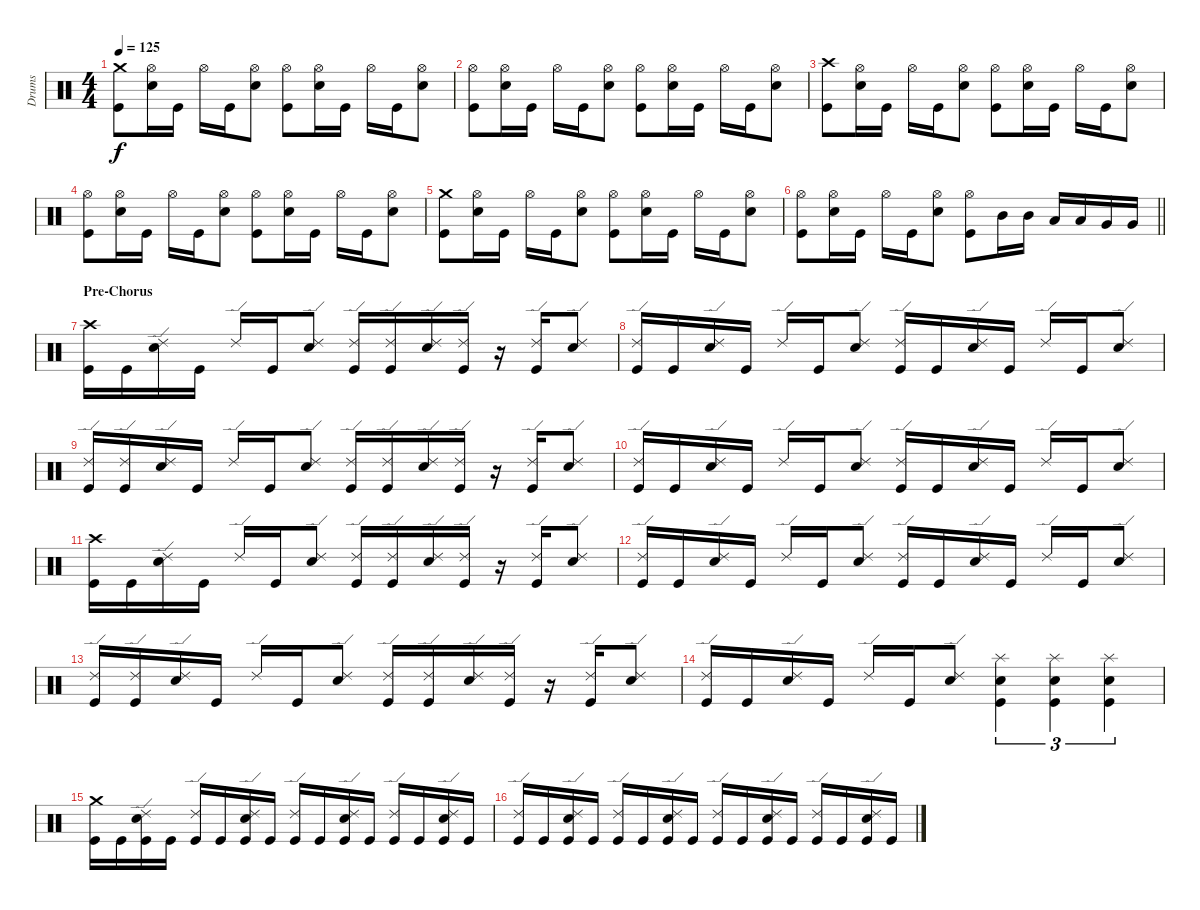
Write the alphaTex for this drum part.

\track ("Drums" "Drums") {instrument percussion}
\staff {score}
\articulation defaults
\ts (4 4)
\tempo 125
\clef neutral
\ks c
("Crash medium (hit)" "Kick (hit)").8{dy f} ("Hi-Hat (open)" "Snare (hit) 2").16 "Kick (hit)".16 "Hi-Hat (open)".16 "Kick (hit)".16 ("Hi-Hat (open)" "Snare (hit) 2").8 ("Hi-Hat (open)" "Kick (hit)").8 ("Hi-Hat (open)" "Snare (hit) 2").16 "Kick (hit)".16 "Hi-Hat (open)".16 "Kick (hit)".16 ("Hi-Hat (open)" "Snare (hit) 2").8 |
("Hi-Hat (open)" "Kick (hit)").8 ("Hi-Hat (open)" "Snare (hit) 2").16 "Kick (hit)".16 "Hi-Hat (open)".16 "Kick (hit)".16 ("Hi-Hat (open)" "Snare (hit) 2").8 ("Hi-Hat (open)" "Kick (hit)").8 ("Hi-Hat (open)" "Snare (hit) 2").16 "Kick (hit)".16 "Hi-Hat (open)".16 "Kick (hit)".16 ("Hi-Hat (open)" "Snare (hit) 2").8 |
("Crash high (hit)" "Kick (hit)").8 ("Hi-Hat (open)" "Snare (hit) 2").16 "Kick (hit)".16 "Hi-Hat (open)".16 "Kick (hit)".16 ("Hi-Hat (open)" "Snare (hit) 2").8 ("Hi-Hat (open)" "Kick (hit)").8 ("Hi-Hat (open)" "Snare (hit) 2").16 "Kick (hit)".16 "Hi-Hat (open)".16 "Kick (hit)".16 ("Hi-Hat (open)" "Snare (hit) 2").8 |
("Hi-Hat (open)" "Kick (hit)").8 ("Hi-Hat (open)" "Snare (hit) 2").16 "Kick (hit)".16 "Hi-Hat (open)".16 "Kick (hit)".16 ("Hi-Hat (open)" "Snare (hit) 2").8 ("Hi-Hat (open)" "Kick (hit)").8 ("Hi-Hat (open)" "Snare (hit) 2").16 "Kick (hit)".16 "Hi-Hat (open)".16 "Kick (hit)".16 ("Hi-Hat (open)" "Snare (hit) 2").8 |
("Crash medium (hit)" "Kick (hit)").8 ("Hi-Hat (open)" "Snare (hit) 2").16 "Kick (hit)".16 "Hi-Hat (open)".16 "Kick (hit)".16 ("Hi-Hat (open)" "Snare (hit) 2").8 ("Hi-Hat (open)" "Kick (hit)").8 ("Hi-Hat (open)" "Snare (hit) 2").16 "Kick (hit)".16 "Hi-Hat (open)".16 "Kick (hit)".16 ("Hi-Hat (open)" "Snare (hit) 2").8 |
\barLineRight lightlight
("Hi-Hat (open)" "Kick (hit)").8 ("Hi-Hat (open)" "Snare (hit) 2").16 "Kick (hit)".16 "Hi-Hat (open)".16 "Kick (hit)".16 ("Hi-Hat (open)" "Snare (hit) 2").8 ("Hi-Hat (open)" "Kick (hit)").8 "Mid Tom (hit)".16 "Mid Tom (hit)".16 "Low Tom (hit)".16 "Low Tom (hit)".16 "Very Low Tom (hit)".16 "Very Low Tom (hit)".16 |
\section ("" "Pre-Chorus")
("Crash high (hit)" "Kick (hit)").16 "Kick (hit)".16 ("Ride (edge) 2" "Snare (hit) 2").16 "Kick (hit)".16 "Ride (edge) 2".16 "Kick (hit)".16 ("Ride (edge) 2" "Snare (hit) 2").8 ("Ride (edge) 2" "Kick (hit)").16 ("Ride (edge) 2" "Kick (hit)").16 ("Ride (edge) 2" "Snare (hit) 2").16 ("Ride (edge) 2" "Kick (hit)").16 r.16 ("Ride (edge) 2" "Kick (hit)").16 ("Ride (edge) 2" "Snare (hit) 2").8 |
("Ride (edge) 2" "Kick (hit)").16 "Kick (hit)".16 ("Ride (edge) 2" "Snare (hit) 2").16 "Kick (hit)".16 "Ride (edge) 2".16 "Kick (hit)".16 ("Ride (edge) 2" "Snare (hit) 2").8 ("Ride (edge) 2" "Kick (hit)").16 "Kick (hit)".16 ("Ride (edge) 2" "Snare (hit) 2").16 "Kick (hit)".16 "Ride (edge) 2".16 "Kick (hit)".16 ("Ride (edge) 2" "Snare (hit) 2").8 |
("Ride (edge) 2" "Kick (hit)").16 ("Ride (edge) 2" "Kick (hit)").16 ("Ride (edge) 2" "Snare (hit) 2").16 "Kick (hit)".16 "Ride (edge) 2".16 "Kick (hit)".16 ("Ride (edge) 2" "Snare (hit) 2").8 ("Ride (edge) 2" "Kick (hit)").16 ("Ride (edge) 2" "Kick (hit)").16 ("Ride (edge) 2" "Snare (hit) 2").16 ("Ride (edge) 2" "Kick (hit)").16 r.16 ("Ride (edge) 2" "Kick (hit)").16 ("Ride (edge) 2" "Snare (hit) 2").8 |
("Ride (edge) 2" "Kick (hit)").16 "Kick (hit)".16 ("Ride (edge) 2" "Snare (hit) 2").16 "Kick (hit)".16 "Ride (edge) 2".16 "Kick (hit)".16 ("Ride (edge) 2" "Snare (hit) 2").8 ("Ride (edge) 2" "Kick (hit)").16 "Kick (hit)".16 ("Ride (edge) 2" "Snare (hit) 2").16 "Kick (hit)".16 "Ride (edge) 2".16 "Kick (hit)".16 ("Ride (edge) 2" "Snare (hit) 2").8 |
("Crash high (hit)" "Kick (hit)").16 "Kick (hit)".16 ("Ride (edge) 2" "Snare (hit) 2").16 "Kick (hit)".16 "Ride (edge) 2".16 "Kick (hit)".16 ("Ride (edge) 2" "Snare (hit) 2").8 ("Ride (edge) 2" "Kick (hit)").16 ("Ride (edge) 2" "Kick (hit)").16 ("Ride (edge) 2" "Snare (hit) 2").16 ("Ride (edge) 2" "Kick (hit)").16 r.16 ("Ride (edge) 2" "Kick (hit)").16 ("Ride (edge) 2" "Snare (hit) 2").8 |
("Ride (edge) 2" "Kick (hit)").16 "Kick (hit)".16 ("Ride (edge) 2" "Snare (hit) 2").16 "Kick (hit)".16 "Ride (edge) 2".16 "Kick (hit)".16 ("Ride (edge) 2" "Snare (hit) 2").8 ("Ride (edge) 2" "Kick (hit)").16 "Kick (hit)".16 ("Ride (edge) 2" "Snare (hit) 2").16 "Kick (hit)".16 "Ride (edge) 2".16 "Kick (hit)".16 ("Ride (edge) 2" "Snare (hit) 2").8 |
("Ride (edge) 2" "Kick (hit)").16 ("Ride (edge) 2" "Kick (hit)").16 ("Ride (edge) 2" "Snare (hit) 2").16 "Kick (hit)".16 "Ride (edge) 2".16 "Kick (hit)".16 ("Ride (edge) 2" "Snare (hit) 2").8 ("Ride (edge) 2" "Kick (hit)").16 ("Ride (edge) 2" "Kick (hit)").16 ("Ride (edge) 2" "Snare (hit) 2").16 ("Ride (edge) 2" "Kick (hit)").16 r.16 ("Ride (edge) 2" "Kick (hit)").16 ("Ride (edge) 2" "Snare (hit) 2").8 |
("Ride (edge) 2" "Kick (hit)").16 "Kick (hit)".16 ("Ride (edge) 2" "Snare (hit) 2").16 "Kick (hit)".16 "Ride (edge) 2".16 "Kick (hit)".16 ("Ride (edge) 2" "Snare (hit) 2").8 ("Splash (hit)" "Snare (hit) 2" "Kick (hit)").4{tu (3 2)} ("Splash (hit)" "Snare (hit) 2" "Kick (hit)").4{tu (3 2)} ("Splash (hit)" "Snare (hit) 2" "Kick (hit)").4{tu (3 2)} |
("Crash medium (hit)" "Kick (hit)").16 "Kick (hit)".16 ("Ride (edge) 2" "Snare (hit) 2" "Kick (hit)").16 "Kick (hit)".16 ("Ride (edge) 2" "Kick (hit)").16 "Kick (hit)".16 ("Ride (edge) 2" "Snare (hit) 2" "Kick (hit)").16 "Kick (hit)".16 ("Ride (edge) 2" "Kick (hit)").16 "Kick (hit)".16 ("Ride (edge) 2" "Snare (hit) 2" "Kick (hit)").16 "Kick (hit)".16 ("Ride (edge) 2" "Kick (hit)").16 "Kick (hit)".16 ("Ride (edge) 2" "Snare (hit) 2" "Kick (hit)").16 "Kick (hit)".16 |
("Ride (edge) 2" "Kick (hit)").16 "Kick (hit)".16 ("Ride (edge) 2" "Snare (hit) 2" "Kick (hit)").16 "Kick (hit)".16 ("Ride (edge) 2" "Kick (hit)").16 "Kick (hit)".16 ("Ride (edge) 2" "Snare (hit) 2" "Kick (hit)").16 "Kick (hit)".16 ("Ride (edge) 2" "Kick (hit)").16 "Kick (hit)".16 ("Ride (edge) 2" "Snare (hit) 2" "Kick (hit)").16 "Kick (hit)".16 ("Ride (edge) 2" "Kick (hit)").16 "Kick (hit)".16 ("Ride (edge) 2" "Snare (hit) 2" "Kick (hit)").16 "Kick (hit)".16
